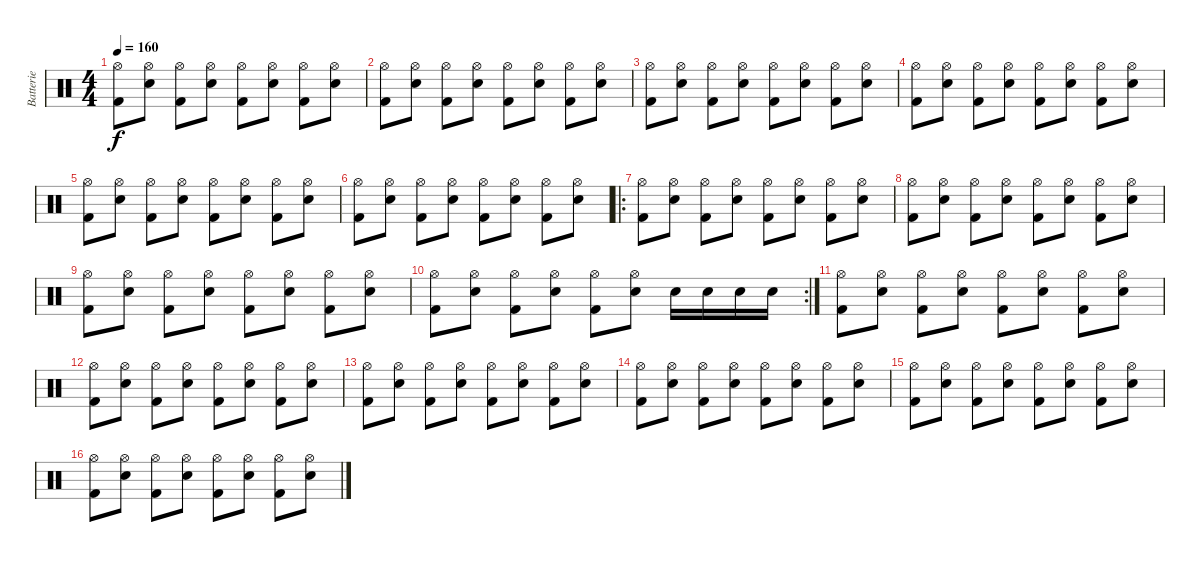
\track ("Batterie" "Batterie") {instrument percussion}
\staff {score}
\articulation defaults
\ts (4 4)
\tempo 160
\clef neutral
\ks c
("Kick (hit) 2" "Hi-Hat (open)").8{dy f} ("Electric Snare (hit)" "Hi-Hat (open)").8 ("Kick (hit) 2" "Hi-Hat (open)").8 ("Electric Snare (hit)" "Hi-Hat (open)").8 ("Kick (hit) 2" "Hi-Hat (open)").8 ("Electric Snare (hit)" "Hi-Hat (open)").8 ("Kick (hit) 2" "Hi-Hat (open)").8 ("Electric Snare (hit)" "Hi-Hat (open)").8 |
("Kick (hit) 2" "Hi-Hat (open)").8 ("Electric Snare (hit)" "Hi-Hat (open)").8 ("Kick (hit) 2" "Hi-Hat (open)").8 ("Electric Snare (hit)" "Hi-Hat (open)").8 ("Kick (hit) 2" "Hi-Hat (open)").8 ("Electric Snare (hit)" "Hi-Hat (open)").8 ("Kick (hit) 2" "Hi-Hat (open)").8 ("Electric Snare (hit)" "Hi-Hat (open)").8 |
("Kick (hit) 2" "Hi-Hat (open)").8 ("Electric Snare (hit)" "Hi-Hat (open)").8 ("Kick (hit) 2" "Hi-Hat (open)").8 ("Electric Snare (hit)" "Hi-Hat (open)").8 ("Kick (hit) 2" "Hi-Hat (open)").8 ("Electric Snare (hit)" "Hi-Hat (open)").8 ("Kick (hit) 2" "Hi-Hat (open)").8 ("Electric Snare (hit)" "Hi-Hat (open)").8 |
("Kick (hit) 2" "Hi-Hat (open)").8 ("Electric Snare (hit)" "Hi-Hat (open)").8 ("Kick (hit) 2" "Hi-Hat (open)").8 ("Electric Snare (hit)" "Hi-Hat (open)").8 ("Kick (hit) 2" "Hi-Hat (open)").8 ("Electric Snare (hit)" "Hi-Hat (open)").8 ("Kick (hit) 2" "Hi-Hat (open)").8 ("Electric Snare (hit)" "Hi-Hat (open)").8 |
("Kick (hit) 2" "Hi-Hat (open)").8 ("Electric Snare (hit)" "Hi-Hat (open)").8 ("Kick (hit) 2" "Hi-Hat (open)").8 ("Electric Snare (hit)" "Hi-Hat (open)").8 ("Kick (hit) 2" "Hi-Hat (open)").8 ("Electric Snare (hit)" "Hi-Hat (open)").8 ("Kick (hit) 2" "Hi-Hat (open)").8 ("Electric Snare (hit)" "Hi-Hat (open)").8 |
("Kick (hit) 2" "Hi-Hat (open)").8 ("Electric Snare (hit)" "Hi-Hat (open)").8 ("Kick (hit) 2" "Hi-Hat (open)").8 ("Electric Snare (hit)" "Hi-Hat (open)").8 ("Kick (hit) 2" "Hi-Hat (open)").8 ("Electric Snare (hit)" "Hi-Hat (open)").8 ("Kick (hit) 2" "Hi-Hat (open)").8 ("Electric Snare (hit)" "Hi-Hat (open)").8 |
\ro
("Kick (hit) 2" "Hi-Hat (open)").8 ("Electric Snare (hit)" "Hi-Hat (open)").8 ("Kick (hit) 2" "Hi-Hat (open)").8 ("Electric Snare (hit)" "Hi-Hat (open)").8 ("Kick (hit) 2" "Hi-Hat (open)").8 ("Electric Snare (hit)" "Hi-Hat (open)").8 ("Kick (hit) 2" "Hi-Hat (open)").8 ("Electric Snare (hit)" "Hi-Hat (open)").8 |
("Kick (hit) 2" "Hi-Hat (open)").8 ("Electric Snare (hit)" "Hi-Hat (open)").8 ("Kick (hit) 2" "Hi-Hat (open)").8 ("Electric Snare (hit)" "Hi-Hat (open)").8 ("Kick (hit) 2" "Hi-Hat (open)").8 ("Electric Snare (hit)" "Hi-Hat (open)").8 ("Kick (hit) 2" "Hi-Hat (open)").8 ("Electric Snare (hit)" "Hi-Hat (open)").8 |
("Kick (hit) 2" "Hi-Hat (open)").8 ("Electric Snare (hit)" "Hi-Hat (open)").8 ("Kick (hit) 2" "Hi-Hat (open)").8 ("Electric Snare (hit)" "Hi-Hat (open)").8 ("Kick (hit) 2" "Hi-Hat (open)").8 ("Electric Snare (hit)" "Hi-Hat (open)").8 ("Kick (hit) 2" "Hi-Hat (open)").8 ("Electric Snare (hit)" "Hi-Hat (open)").8 |
\rc 2
("Kick (hit) 2" "Hi-Hat (open)").8 ("Electric Snare (hit)" "Hi-Hat (open)").8 ("Kick (hit) 2" "Hi-Hat (open)").8 ("Electric Snare (hit)" "Hi-Hat (open)").8 ("Kick (hit) 2" "Hi-Hat (open)").8 ("Electric Snare (hit)" "Hi-Hat (open)").8 "Electric Snare (hit)".16 "Electric Snare (hit)".16 "Electric Snare (hit)".16 "Electric Snare (hit)".16 |
("Kick (hit) 2" "Hi-Hat (open)").8 ("Electric Snare (hit)" "Hi-Hat (open)").8 ("Kick (hit) 2" "Hi-Hat (open)").8 ("Electric Snare (hit)" "Hi-Hat (open)").8 ("Kick (hit) 2" "Hi-Hat (open)").8 ("Electric Snare (hit)" "Hi-Hat (open)").8 ("Kick (hit) 2" "Hi-Hat (open)").8 ("Electric Snare (hit)" "Hi-Hat (open)").8 |
("Kick (hit) 2" "Hi-Hat (open)").8 ("Electric Snare (hit)" "Hi-Hat (open)").8 ("Kick (hit) 2" "Hi-Hat (open)").8 ("Electric Snare (hit)" "Hi-Hat (open)").8 ("Kick (hit) 2" "Hi-Hat (open)").8 ("Electric Snare (hit)" "Hi-Hat (open)").8 ("Kick (hit) 2" "Hi-Hat (open)").8 ("Electric Snare (hit)" "Hi-Hat (open)").8 |
("Kick (hit) 2" "Hi-Hat (open)").8 ("Electric Snare (hit)" "Hi-Hat (open)").8 ("Kick (hit) 2" "Hi-Hat (open)").8 ("Electric Snare (hit)" "Hi-Hat (open)").8 ("Kick (hit) 2" "Hi-Hat (open)").8 ("Electric Snare (hit)" "Hi-Hat (open)").8 ("Kick (hit) 2" "Hi-Hat (open)").8 ("Electric Snare (hit)" "Hi-Hat (open)").8 |
("Kick (hit) 2" "Hi-Hat (open)").8 ("Electric Snare (hit)" "Hi-Hat (open)").8 ("Kick (hit) 2" "Hi-Hat (open)").8 ("Electric Snare (hit)" "Hi-Hat (open)").8 ("Kick (hit) 2" "Hi-Hat (open)").8 ("Electric Snare (hit)" "Hi-Hat (open)").8 ("Kick (hit) 2" "Hi-Hat (open)").8 ("Electric Snare (hit)" "Hi-Hat (open)").8 |
("Kick (hit) 2" "Hi-Hat (open)").8 ("Electric Snare (hit)" "Hi-Hat (open)").8 ("Kick (hit) 2" "Hi-Hat (open)").8 ("Electric Snare (hit)" "Hi-Hat (open)").8 ("Kick (hit) 2" "Hi-Hat (open)").8 ("Electric Snare (hit)" "Hi-Hat (open)").8 ("Kick (hit) 2" "Hi-Hat (open)").8 ("Electric Snare (hit)" "Hi-Hat (open)").8 |
("Kick (hit) 2" "Hi-Hat (open)").8 ("Electric Snare (hit)" "Hi-Hat (open)").8 ("Kick (hit) 2" "Hi-Hat (open)").8 ("Electric Snare (hit)" "Hi-Hat (open)").8 ("Kick (hit) 2" "Hi-Hat (open)").8 ("Electric Snare (hit)" "Hi-Hat (open)").8 ("Kick (hit) 2" "Hi-Hat (open)").8 ("Electric Snare (hit)" "Hi-Hat (open)").8
